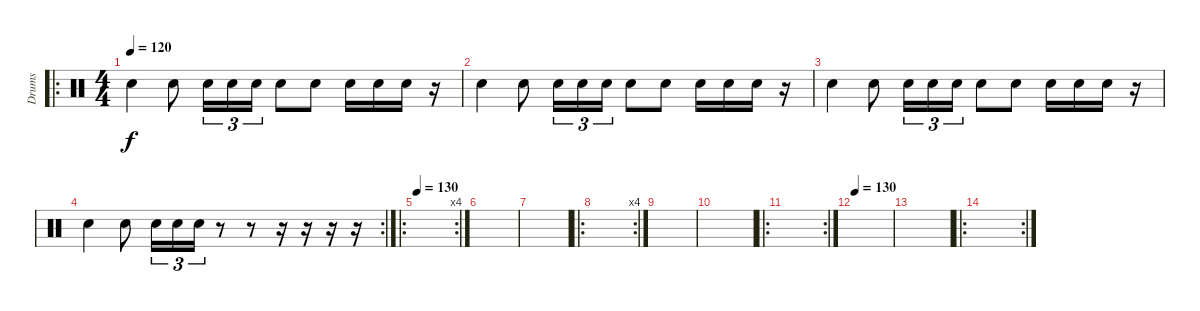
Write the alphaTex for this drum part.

\track ("Drums" "Drums") {instrument percussion}
\staff {score}
\articulation defaults
\ro
\ts (4 4)
\tempo 120
\tempo 90
\tempo 120
\clef neutral
\ks c "Snare (hit) 2".4{dy f} "Snare (hit) 2".8 "Snare (hit) 2".16{tu (3 2)} "Snare (hit) 2".16{tu (3 2)} "Snare (hit) 2".16{tu (3 2)} "Snare (hit) 2".8 "Snare (hit) 2".8 "Snare (hit) 2".16 "Snare (hit) 2".16 "Snare (hit) 2".16
r.16 |
"Snare (hit) 2".4 "Snare (hit) 2".8 "Snare (hit) 2".16{tu (3 2)} "Snare (hit) 2".16{tu (3 2)} "Snare (hit) 2".16{tu (3 2)} "Snare (hit) 2".8 "Snare (hit) 2".8 "Snare (hit) 2".16 "Snare (hit) 2".16 "Snare (hit) 2".16 r.16 |
"Snare (hit) 2".4 "Snare (hit) 2".8 "Snare (hit) 2".16{tu (3 2)} "Snare (hit) 2".16{tu (3 2)} "Snare (hit) 2".16{tu (3 2)} "Snare (hit) 2".8 "Snare (hit) 2".8 "Snare (hit) 2".16 "Snare (hit) 2".16 "Snare (hit) 2".16 r.16 |
\rc 2 "Snare (hit) 2".4 "Snare (hit) 2".8 "Snare (hit) 2".16{tu (3 2)} "Snare (hit) 2".16{tu (3 2)} "Snare (hit) 2".16{tu (3 2)}
r.8 r.8 r.16 r.16 r.16 r.16 |
\ro
\rc 4
\tempo 130
|
|
|
\ro
\rc 4
|
|
|
\ro
\rc 2
|
\tempo 130
|
|
\ro
\rc 2
